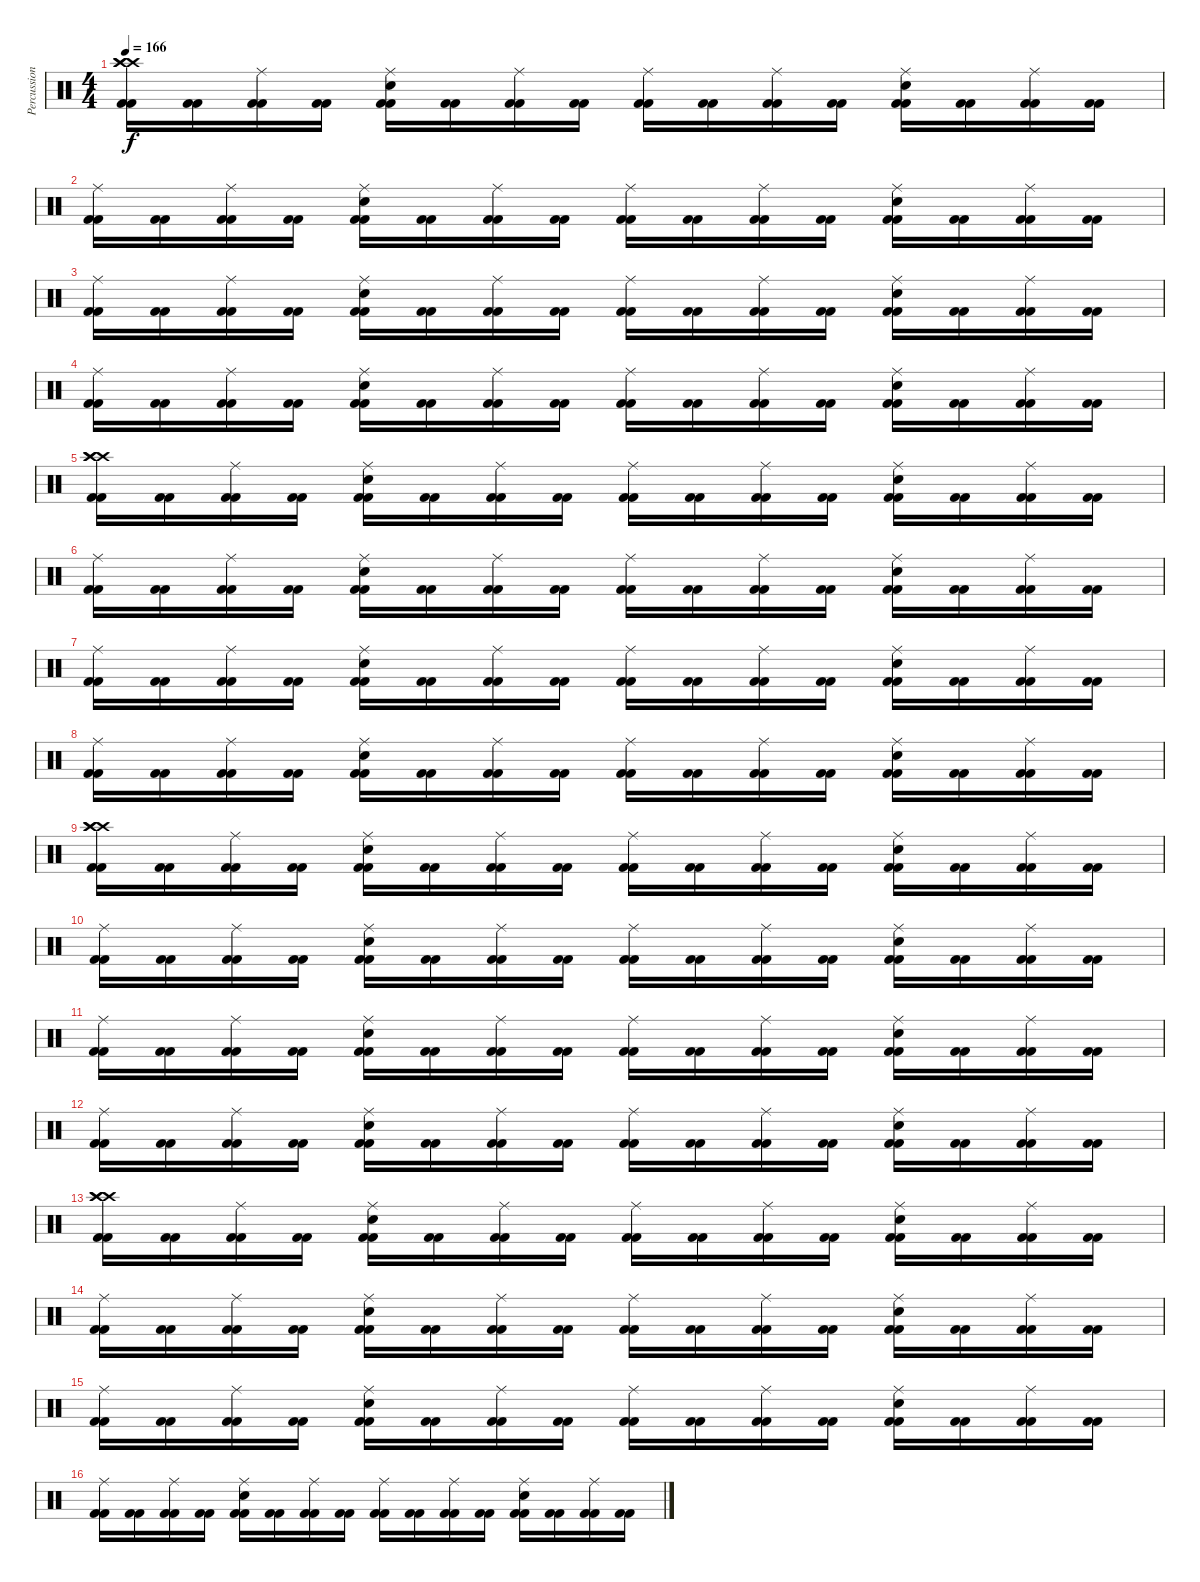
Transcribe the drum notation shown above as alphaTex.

\track ("Percussion" "Percussion") {instrument percussion}
\staff {score}
\articulation defaults
\ts (4 4)
\tempo 166
\clef neutral
\ks c
("Crash high (hit)" "Crash high (hit)" "Crash high (hit)" "Kick (hit) 2" "Kick (hit) 2").16{dy f} ("Kick (hit) 2" "Kick (hit) 2").16 ("Ride (middle)" "Kick (hit) 2" "Kick (hit) 2").16 ("Kick (hit) 2" "Kick (hit) 2").16 ("Ride (middle)" "Electric Snare (hit)" "Kick (hit) 2" "Kick (hit) 2").16 ("Kick (hit) 2" "Kick (hit) 2").16 ("Ride (middle)" "Kick (hit) 2" "Kick (hit) 2").16 ("Kick (hit) 2" "Kick (hit) 2").16 ("Ride (middle)" "Kick (hit) 2" "Kick (hit) 2").16 ("Kick (hit) 2" "Kick (hit) 2").16 ("Ride (middle)" "Kick (hit) 2" "Kick (hit) 2").16 ("Kick (hit) 2" "Kick (hit) 2").16 ("Ride (middle)" "Electric Snare (hit)" "Kick (hit) 2" "Kick (hit) 2").16 ("Kick (hit) 2" "Kick (hit) 2").16 ("Ride (middle)" "Kick (hit) 2" "Kick (hit) 2").16 ("Kick (hit) 2" "Kick (hit) 2").16 |
("Ride (middle)" "Kick (hit) 2" "Kick (hit) 2").16 ("Kick (hit) 2" "Kick (hit) 2").16 ("Ride (middle)" "Kick (hit) 2" "Kick (hit) 2").16 ("Kick (hit) 2" "Kick (hit) 2").16 ("Ride (middle)" "Electric Snare (hit)" "Kick (hit) 2" "Kick (hit) 2").16 ("Kick (hit) 2" "Kick (hit) 2").16 ("Ride (middle)" "Kick (hit) 2" "Kick (hit) 2").16 ("Kick (hit) 2" "Kick (hit) 2").16 ("Ride (middle)" "Kick (hit) 2" "Kick (hit) 2").16 ("Kick (hit) 2" "Kick (hit) 2").16 ("Ride (middle)" "Kick (hit) 2" "Kick (hit) 2").16 ("Kick (hit) 2" "Kick (hit) 2").16 ("Ride (middle)" "Electric Snare (hit)" "Kick (hit) 2" "Kick (hit) 2").16 ("Kick (hit) 2" "Kick (hit) 2").16 ("Ride (middle)" "Kick (hit) 2" "Kick (hit) 2").16 ("Kick (hit) 2" "Kick (hit) 2").16 |
("Ride (middle)" "Kick (hit) 2" "Kick (hit) 2").16 ("Kick (hit) 2" "Kick (hit) 2").16 ("Ride (middle)" "Kick (hit) 2" "Kick (hit) 2").16 ("Kick (hit) 2" "Kick (hit) 2").16 ("Ride (middle)" "Electric Snare (hit)" "Kick (hit) 2" "Kick (hit) 2").16 ("Kick (hit) 2" "Kick (hit) 2").16 ("Ride (middle)" "Kick (hit) 2" "Kick (hit) 2").16 ("Kick (hit) 2" "Kick (hit) 2").16 ("Ride (middle)" "Kick (hit) 2" "Kick (hit) 2").16 ("Kick (hit) 2" "Kick (hit) 2").16 ("Ride (middle)" "Kick (hit) 2" "Kick (hit) 2").16 ("Kick (hit) 2" "Kick (hit) 2").16 ("Ride (middle)" "Electric Snare (hit)" "Kick (hit) 2" "Kick (hit) 2").16 ("Kick (hit) 2" "Kick (hit) 2").16 ("Ride (middle)" "Kick (hit) 2" "Kick (hit) 2").16 ("Kick (hit) 2" "Kick (hit) 2").16 |
("Ride (middle)" "Kick (hit) 2" "Kick (hit) 2").16 ("Kick (hit) 2" "Kick (hit) 2").16 ("Ride (middle)" "Kick (hit) 2" "Kick (hit) 2").16 ("Kick (hit) 2" "Kick (hit) 2").16 ("Ride (middle)" "Electric Snare (hit)" "Kick (hit) 2" "Kick (hit) 2").16 ("Kick (hit) 2" "Kick (hit) 2").16 ("Ride (middle)" "Kick (hit) 2" "Kick (hit) 2").16 ("Kick (hit) 2" "Kick (hit) 2").16 ("Ride (middle)" "Kick (hit) 2" "Kick (hit) 2").16 ("Kick (hit) 2" "Kick (hit) 2").16 ("Ride (middle)" "Kick (hit) 2" "Kick (hit) 2").16 ("Kick (hit) 2" "Kick (hit) 2").16 ("Ride (middle)" "Electric Snare (hit)" "Kick (hit) 2" "Kick (hit) 2").16 ("Kick (hit) 2" "Kick (hit) 2").16 ("Ride (middle)" "Kick (hit) 2" "Kick (hit) 2").16 ("Kick (hit) 2" "Kick (hit) 2").16 |
("Crash high (hit)" "Crash high (hit)" "Crash high (hit)" "Kick (hit) 2" "Kick (hit) 2").16 ("Kick (hit) 2" "Kick (hit) 2").16 ("Ride (middle)" "Kick (hit) 2" "Kick (hit) 2").16 ("Kick (hit) 2" "Kick (hit) 2").16 ("Ride (middle)" "Electric Snare (hit)" "Kick (hit) 2" "Kick (hit) 2").16 ("Kick (hit) 2" "Kick (hit) 2").16 ("Ride (middle)" "Kick (hit) 2" "Kick (hit) 2").16 ("Kick (hit) 2" "Kick (hit) 2").16 ("Ride (middle)" "Kick (hit) 2" "Kick (hit) 2").16 ("Kick (hit) 2" "Kick (hit) 2").16 ("Ride (middle)" "Kick (hit) 2" "Kick (hit) 2").16 ("Kick (hit) 2" "Kick (hit) 2").16 ("Ride (middle)" "Electric Snare (hit)" "Kick (hit) 2" "Kick (hit) 2").16 ("Kick (hit) 2" "Kick (hit) 2").16 ("Ride (middle)" "Kick (hit) 2" "Kick (hit) 2").16 ("Kick (hit) 2" "Kick (hit) 2").16 |
("Ride (middle)" "Kick (hit) 2" "Kick (hit) 2").16 ("Kick (hit) 2" "Kick (hit) 2").16 ("Ride (middle)" "Kick (hit) 2" "Kick (hit) 2").16 ("Kick (hit) 2" "Kick (hit) 2").16 ("Ride (middle)" "Electric Snare (hit)" "Kick (hit) 2" "Kick (hit) 2").16 ("Kick (hit) 2" "Kick (hit) 2").16 ("Ride (middle)" "Kick (hit) 2" "Kick (hit) 2").16 ("Kick (hit) 2" "Kick (hit) 2").16 ("Ride (middle)" "Kick (hit) 2" "Kick (hit) 2").16 ("Kick (hit) 2" "Kick (hit) 2").16 ("Ride (middle)" "Kick (hit) 2" "Kick (hit) 2").16 ("Kick (hit) 2" "Kick (hit) 2").16 ("Ride (middle)" "Electric Snare (hit)" "Kick (hit) 2" "Kick (hit) 2").16 ("Kick (hit) 2" "Kick (hit) 2").16 ("Ride (middle)" "Kick (hit) 2" "Kick (hit) 2").16 ("Kick (hit) 2" "Kick (hit) 2").16 |
("Ride (middle)" "Kick (hit) 2" "Kick (hit) 2").16 ("Kick (hit) 2" "Kick (hit) 2").16 ("Ride (middle)" "Kick (hit) 2" "Kick (hit) 2").16 ("Kick (hit) 2" "Kick (hit) 2").16 ("Ride (middle)" "Electric Snare (hit)" "Kick (hit) 2" "Kick (hit) 2").16 ("Kick (hit) 2" "Kick (hit) 2").16 ("Ride (middle)" "Kick (hit) 2" "Kick (hit) 2").16 ("Kick (hit) 2" "Kick (hit) 2").16 ("Ride (middle)" "Kick (hit) 2" "Kick (hit) 2").16 ("Kick (hit) 2" "Kick (hit) 2").16 ("Ride (middle)" "Kick (hit) 2" "Kick (hit) 2").16 ("Kick (hit) 2" "Kick (hit) 2").16 ("Ride (middle)" "Electric Snare (hit)" "Kick (hit) 2" "Kick (hit) 2").16 ("Kick (hit) 2" "Kick (hit) 2").16 ("Ride (middle)" "Kick (hit) 2" "Kick (hit) 2").16 ("Kick (hit) 2" "Kick (hit) 2").16 |
("Ride (middle)" "Kick (hit) 2" "Kick (hit) 2").16 ("Kick (hit) 2" "Kick (hit) 2").16 ("Ride (middle)" "Kick (hit) 2" "Kick (hit) 2").16 ("Kick (hit) 2" "Kick (hit) 2").16 ("Ride (middle)" "Electric Snare (hit)" "Kick (hit) 2" "Kick (hit) 2").16 ("Kick (hit) 2" "Kick (hit) 2").16 ("Ride (middle)" "Kick (hit) 2" "Kick (hit) 2").16 ("Kick (hit) 2" "Kick (hit) 2").16 ("Ride (middle)" "Kick (hit) 2" "Kick (hit) 2").16 ("Kick (hit) 2" "Kick (hit) 2").16 ("Ride (middle)" "Kick (hit) 2" "Kick (hit) 2").16 ("Kick (hit) 2" "Kick (hit) 2").16 ("Ride (middle)" "Electric Snare (hit)" "Kick (hit) 2" "Kick (hit) 2").16 ("Kick (hit) 2" "Kick (hit) 2").16 ("Ride (middle)" "Kick (hit) 2" "Kick (hit) 2").16 ("Kick (hit) 2" "Kick (hit) 2").16 |
("Crash high (hit)" "Crash high (hit)" "Crash high (hit)" "Kick (hit) 2" "Kick (hit) 2").16 ("Kick (hit) 2" "Kick (hit) 2").16 ("Ride (middle)" "Kick (hit) 2" "Kick (hit) 2").16 ("Kick (hit) 2" "Kick (hit) 2").16 ("Ride (middle)" "Electric Snare (hit)" "Kick (hit) 2" "Kick (hit) 2").16 ("Kick (hit) 2" "Kick (hit) 2").16 ("Ride (middle)" "Kick (hit) 2" "Kick (hit) 2").16 ("Kick (hit) 2" "Kick (hit) 2").16 ("Ride (middle)" "Kick (hit) 2" "Kick (hit) 2").16 ("Kick (hit) 2" "Kick (hit) 2").16 ("Ride (middle)" "Kick (hit) 2" "Kick (hit) 2").16 ("Kick (hit) 2" "Kick (hit) 2").16 ("Ride (middle)" "Electric Snare (hit)" "Kick (hit) 2" "Kick (hit) 2").16 ("Kick (hit) 2" "Kick (hit) 2").16 ("Ride (middle)" "Kick (hit) 2" "Kick (hit) 2").16 ("Kick (hit) 2" "Kick (hit) 2").16 |
("Ride (middle)" "Kick (hit) 2" "Kick (hit) 2").16 ("Kick (hit) 2" "Kick (hit) 2").16 ("Ride (middle)" "Kick (hit) 2" "Kick (hit) 2").16 ("Kick (hit) 2" "Kick (hit) 2").16 ("Ride (middle)" "Electric Snare (hit)" "Kick (hit) 2" "Kick (hit) 2").16 ("Kick (hit) 2" "Kick (hit) 2").16 ("Ride (middle)" "Kick (hit) 2" "Kick (hit) 2").16 ("Kick (hit) 2" "Kick (hit) 2").16 ("Ride (middle)" "Kick (hit) 2" "Kick (hit) 2").16 ("Kick (hit) 2" "Kick (hit) 2").16 ("Ride (middle)" "Kick (hit) 2" "Kick (hit) 2").16 ("Kick (hit) 2" "Kick (hit) 2").16 ("Ride (middle)" "Electric Snare (hit)" "Kick (hit) 2" "Kick (hit) 2").16 ("Kick (hit) 2" "Kick (hit) 2").16 ("Ride (middle)" "Kick (hit) 2" "Kick (hit) 2").16 ("Kick (hit) 2" "Kick (hit) 2").16 |
("Ride (middle)" "Kick (hit) 2" "Kick (hit) 2").16 ("Kick (hit) 2" "Kick (hit) 2").16 ("Ride (middle)" "Kick (hit) 2" "Kick (hit) 2").16 ("Kick (hit) 2" "Kick (hit) 2").16 ("Ride (middle)" "Electric Snare (hit)" "Kick (hit) 2" "Kick (hit) 2").16 ("Kick (hit) 2" "Kick (hit) 2").16 ("Ride (middle)" "Kick (hit) 2" "Kick (hit) 2").16 ("Kick (hit) 2" "Kick (hit) 2").16 ("Ride (middle)" "Kick (hit) 2" "Kick (hit) 2").16 ("Kick (hit) 2" "Kick (hit) 2").16 ("Ride (middle)" "Kick (hit) 2" "Kick (hit) 2").16 ("Kick (hit) 2" "Kick (hit) 2").16 ("Ride (middle)" "Electric Snare (hit)" "Kick (hit) 2" "Kick (hit) 2").16 ("Kick (hit) 2" "Kick (hit) 2").16 ("Ride (middle)" "Kick (hit) 2" "Kick (hit) 2").16 ("Kick (hit) 2" "Kick (hit) 2").16 |
("Ride (middle)" "Kick (hit) 2" "Kick (hit) 2").16 ("Kick (hit) 2" "Kick (hit) 2").16 ("Ride (middle)" "Kick (hit) 2" "Kick (hit) 2").16 ("Kick (hit) 2" "Kick (hit) 2").16 ("Ride (middle)" "Electric Snare (hit)" "Kick (hit) 2" "Kick (hit) 2").16 ("Kick (hit) 2" "Kick (hit) 2").16 ("Ride (middle)" "Kick (hit) 2" "Kick (hit) 2").16 ("Kick (hit) 2" "Kick (hit) 2").16 ("Ride (middle)" "Kick (hit) 2" "Kick (hit) 2").16 ("Kick (hit) 2" "Kick (hit) 2").16 ("Ride (middle)" "Kick (hit) 2" "Kick (hit) 2").16 ("Kick (hit) 2" "Kick (hit) 2").16 ("Ride (middle)" "Electric Snare (hit)" "Kick (hit) 2" "Kick (hit) 2").16 ("Kick (hit) 2" "Kick (hit) 2").16 ("Ride (middle)" "Kick (hit) 2" "Kick (hit) 2").16 ("Kick (hit) 2" "Kick (hit) 2").16 |
("Crash high (hit)" "Crash high (hit)" "Crash high (hit)" "Kick (hit) 2" "Kick (hit) 2").16 ("Kick (hit) 2" "Kick (hit) 2").16 ("Ride (middle)" "Kick (hit) 2" "Kick (hit) 2").16 ("Kick (hit) 2" "Kick (hit) 2").16 ("Ride (middle)" "Electric Snare (hit)" "Kick (hit) 2" "Kick (hit) 2").16 ("Kick (hit) 2" "Kick (hit) 2").16 ("Ride (middle)" "Kick (hit) 2" "Kick (hit) 2").16 ("Kick (hit) 2" "Kick (hit) 2").16 ("Ride (middle)" "Kick (hit) 2" "Kick (hit) 2").16 ("Kick (hit) 2" "Kick (hit) 2").16 ("Ride (middle)" "Kick (hit) 2" "Kick (hit) 2").16 ("Kick (hit) 2" "Kick (hit) 2").16 ("Ride (middle)" "Electric Snare (hit)" "Kick (hit) 2" "Kick (hit) 2").16 ("Kick (hit) 2" "Kick (hit) 2").16 ("Ride (middle)" "Kick (hit) 2" "Kick (hit) 2").16 ("Kick (hit) 2" "Kick (hit) 2").16 |
("Ride (middle)" "Kick (hit) 2" "Kick (hit) 2").16 ("Kick (hit) 2" "Kick (hit) 2").16 ("Ride (middle)" "Kick (hit) 2" "Kick (hit) 2").16 ("Kick (hit) 2" "Kick (hit) 2").16 ("Ride (middle)" "Electric Snare (hit)" "Kick (hit) 2" "Kick (hit) 2").16 ("Kick (hit) 2" "Kick (hit) 2").16 ("Ride (middle)" "Kick (hit) 2" "Kick (hit) 2").16 ("Kick (hit) 2" "Kick (hit) 2").16 ("Ride (middle)" "Kick (hit) 2" "Kick (hit) 2").16 ("Kick (hit) 2" "Kick (hit) 2").16 ("Ride (middle)" "Kick (hit) 2" "Kick (hit) 2").16 ("Kick (hit) 2" "Kick (hit) 2").16 ("Ride (middle)" "Electric Snare (hit)" "Kick (hit) 2" "Kick (hit) 2").16 ("Kick (hit) 2" "Kick (hit) 2").16 ("Ride (middle)" "Kick (hit) 2" "Kick (hit) 2").16 ("Kick (hit) 2" "Kick (hit) 2").16 |
("Ride (middle)" "Kick (hit) 2" "Kick (hit) 2").16 ("Kick (hit) 2" "Kick (hit) 2").16 ("Ride (middle)" "Kick (hit) 2" "Kick (hit) 2").16 ("Kick (hit) 2" "Kick (hit) 2").16 ("Ride (middle)" "Electric Snare (hit)" "Kick (hit) 2" "Kick (hit) 2").16 ("Kick (hit) 2" "Kick (hit) 2").16 ("Ride (middle)" "Kick (hit) 2" "Kick (hit) 2").16 ("Kick (hit) 2" "Kick (hit) 2").16 ("Ride (middle)" "Kick (hit) 2" "Kick (hit) 2").16 ("Kick (hit) 2" "Kick (hit) 2").16 ("Ride (middle)" "Kick (hit) 2" "Kick (hit) 2").16 ("Kick (hit) 2" "Kick (hit) 2").16 ("Ride (middle)" "Electric Snare (hit)" "Kick (hit) 2" "Kick (hit) 2").16 ("Kick (hit) 2" "Kick (hit) 2").16 ("Ride (middle)" "Kick (hit) 2" "Kick (hit) 2").16 ("Kick (hit) 2" "Kick (hit) 2").16 |
("Ride (middle)" "Kick (hit) 2" "Kick (hit) 2").16 ("Kick (hit) 2" "Kick (hit) 2").16 ("Ride (middle)" "Kick (hit) 2" "Kick (hit) 2").16 ("Kick (hit) 2" "Kick (hit) 2").16 ("Ride (middle)" "Electric Snare (hit)" "Kick (hit) 2" "Kick (hit) 2").16 ("Kick (hit) 2" "Kick (hit) 2").16 ("Ride (middle)" "Kick (hit) 2" "Kick (hit) 2").16 ("Kick (hit) 2" "Kick (hit) 2").16 ("Ride (middle)" "Kick (hit) 2" "Kick (hit) 2").16 ("Kick (hit) 2" "Kick (hit) 2").16 ("Ride (middle)" "Kick (hit) 2" "Kick (hit) 2").16 ("Kick (hit) 2" "Kick (hit) 2").16 ("Ride (middle)" "Electric Snare (hit)" "Kick (hit) 2" "Kick (hit) 2").16 ("Kick (hit) 2" "Kick (hit) 2").16 ("Ride (middle)" "Kick (hit) 2" "Kick (hit) 2").16 ("Kick (hit) 2" "Kick (hit) 2").16
